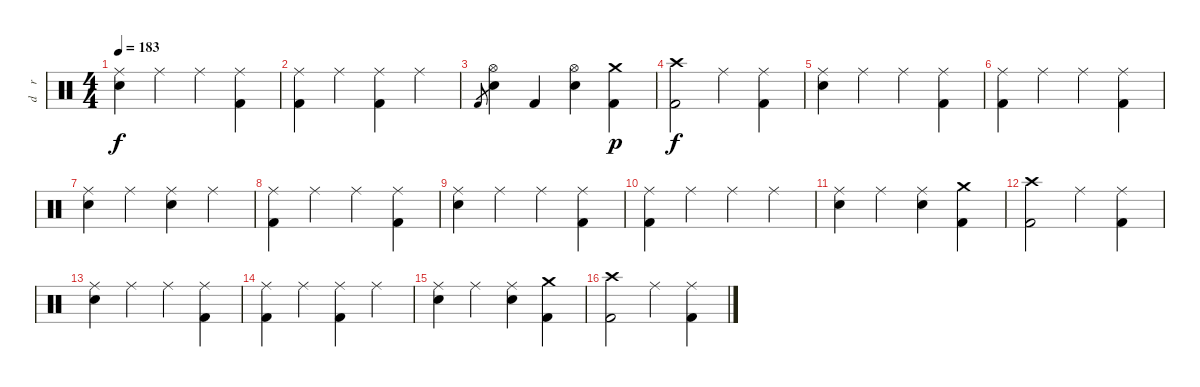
\track ("d    r     u    m    s" "d    r    ") {instrument percussion}
\staff {score}
\articulation defaults
\ts (4 4)
\tempo 183
\clef neutral
\ks c
("Ride (middle)" "Snare (hit) 2").4{dy f} "Ride (middle)".4 "Ride (middle)".4 ("Ride (middle)" "Kick (hit) 2").4 |
("Ride (middle)" "Kick (hit) 2").4 "Ride (middle)".4 ("Ride (middle)" "Kick (hit) 2").4 "Ride (middle)".4 |
"Kick (hit) 2".8{gr} ("Hi-Hat (open)" "Snare (hit) 2").4 "Kick (hit) 2".4 ("Hi-Hat (open)" "Snare (hit) 2").4 ("Crash medium (hit)" "Kick (hit) 2").4{dy p} |
("Crash high (hit)" "Kick (hit) 2").2{dy f} "Ride (middle)".4 ("Ride (middle)" "Kick (hit) 2").4 |
("Ride (middle)" "Snare (hit) 2").4 "Ride (middle)".4 "Ride (middle)".4 ("Ride (middle)" "Kick (hit) 2").4 |
("Ride (middle)" "Kick (hit) 2").4 "Ride (middle)".4 "Ride (middle)".4 ("Ride (middle)" "Kick (hit) 2").4 |
("Ride (middle)" "Snare (hit) 2").4 "Ride (middle)".4 ("Ride (middle)" "Snare (hit) 2").4 "Ride (middle)".4 |
("Ride (middle)" "Kick (hit) 2").4 "Ride (middle)".4 "Ride (middle)".4 ("Ride (middle)" "Kick (hit) 2").4 |
("Ride (middle)" "Snare (hit) 2").4 "Ride (middle)".4 "Ride (middle)".4 ("Ride (middle)" "Kick (hit) 2").4 |
("Ride (middle)" "Kick (hit) 2").4 "Ride (middle)".4 "Ride (middle)".4 "Ride (middle)".4 |
("Ride (middle)" "Snare (hit) 2").4 "Ride (middle)".4 ("Ride (middle)" "Snare (hit) 2").4 ("Crash medium (hit)" "Kick (hit) 2").4 |
("Crash high (hit)" "Kick (hit) 2").2 "Ride (middle)".4 ("Ride (middle)" "Kick (hit) 2").4 |
("Ride (middle)" "Snare (hit) 2").4 "Ride (middle)".4 "Ride (middle)".4 ("Ride (middle)" "Kick (hit) 2").4 |
("Ride (middle)" "Kick (hit) 2").4 "Ride (middle)".4 ("Ride (middle)" "Kick (hit) 2").4 "Ride (middle)".4 |
("Ride (middle)" "Snare (hit) 2").4 "Ride (middle)".4 ("Ride (middle)" "Snare (hit) 2").4 ("Crash medium (hit)" "Kick (hit) 2").4 |
("Crash high (hit)" "Kick (hit) 2").2 "Ride (middle)".4 ("Ride (middle)" "Kick (hit) 2").4
